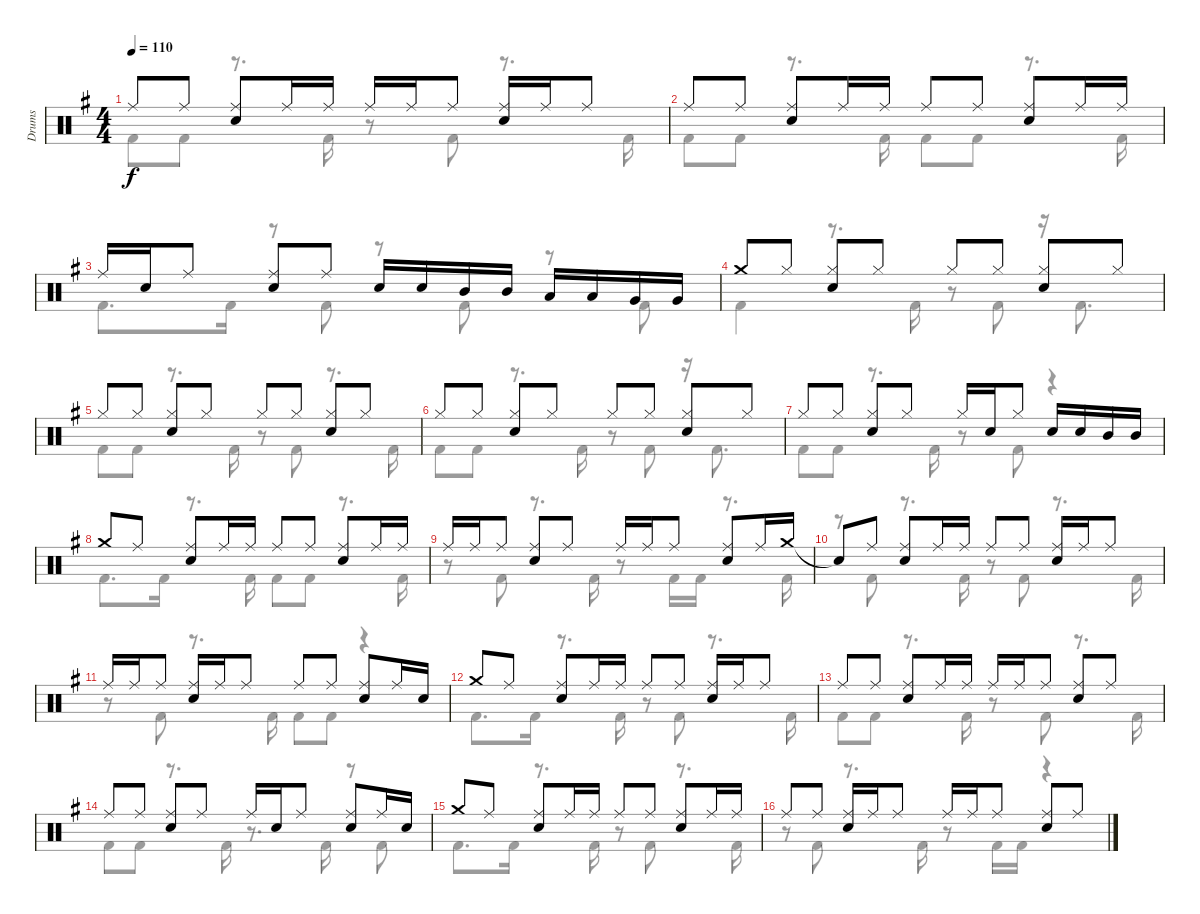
\track ("Drums" "Drums") {instrument percussion}
\staff {score}
\articulation defaults
\voice
\ts (4 4)
\tempo 110
\clef neutral
\ks g "Ride (middle)".8{dy f} "Ride (middle)".8
("Ride (middle)" "Snare (hit) 2").8 "Ride (middle)".16 "Ride (middle)".16 "Ride (middle)".16 "Ride (middle)".16 "Ride (middle)".8 ("Ride (middle)" "Snare (hit) 2").16 "Ride (middle)".16 "Ride (middle)".8 |
"Ride (middle)".8 "Ride (middle)".8 ("Ride (middle)" "Snare (hit) 2").8 "Ride (middle)".16 "Ride (middle)".16 "Ride (middle)".8 "Ride (middle)".8 ("Ride (middle)" "Snare (hit) 2").8 "Ride (middle)".16 "Ride (middle)".16 |
"Ride (middle)".16 "Snare (hit) 2".16 "Ride (middle)".8 ("Ride (middle)" "Snare (hit) 2").8 "Ride (middle)".8 "Snare (hit) 2".16 "Snare (hit) 2".16 "Mid Tom (hit)".16 "Mid Tom (hit)".16 "Low Tom (hit)".16 "Low Tom (hit)".16 "Very Low Tom (hit)".16 "Very Low Tom (hit)".16 |
"Crash medium (hit)".8 "Hi-Hat (closed)".8 ("Hi-Hat (closed)" "Snare (hit) 2").8 "Hi-Hat (closed)".8 "Hi-Hat (closed)".8 "Hi-Hat (closed)".8 ("Hi-Hat (closed)" "Snare (hit) 2").8 "Hi-Hat (closed)".8 |
"Hi-Hat (closed)".8 "Hi-Hat (closed)".8 ("Hi-Hat (closed)" "Snare (hit) 2").8 "Hi-Hat (closed)".8 "Hi-Hat (closed)".8 "Hi-Hat (closed)".8 ("Hi-Hat (closed)" "Snare (hit) 2").8 "Hi-Hat (closed)".8 |
"Hi-Hat (closed)".8 "Hi-Hat (closed)".8 ("Hi-Hat (closed)" "Snare (hit) 2").8 "Hi-Hat (closed)".8 "Hi-Hat (closed)".8 "Hi-Hat (closed)".8 ("Hi-Hat (closed)" "Snare (hit) 2").8 "Hi-Hat (closed)".8 |
"Hi-Hat (closed)".8 "Hi-Hat (closed)".8 ("Hi-Hat (closed)" "Snare (hit) 2").8 "Hi-Hat (closed)".8 "Hi-Hat (closed)".16 "Snare (hit) 2".16 "Hi-Hat (closed)".8 "Snare (hit) 2".16 "Snare (hit) 2".16 "Mid Tom (hit)".16 "Mid Tom (hit)".16 |
"Crash medium (hit)".8 "Ride (middle)".8 ("Ride (middle)" "Snare (hit) 2").8 "Ride (middle)".16 "Ride (middle)".16 "Ride (middle)".8 "Ride (middle)".8 ("Ride (middle)" "Snare (hit) 2").8 "Ride (middle)".16 "Ride (middle)".16 |
"Ride (middle)".16 "Ride (middle)".16 "Ride (middle)".8 ("Ride (middle)" "Snare (hit) 2").8 "Ride (middle)".8 "Ride (middle)".16 "Ride (middle)".16 "Ride (middle)".8 ("Ride (middle)" "Snare (hit) 2").8 "Ride (middle)".16 "Crash medium (hit)".16 |
"Snare (hit)"{t}.8 "Ride (middle)".8 ("Ride (middle)" "Snare (hit) 2").8 "Ride (middle)".16 "Ride (middle)".16 "Ride (middle)".8 "Ride (middle)".8 ("Ride (middle)" "Snare (hit) 2").16 "Ride (middle)".16 "Ride (middle)".8 |
"Ride (middle)".16 "Ride (middle)".16 "Ride (middle)".8 ("Ride (middle)" "Snare (hit) 2").16 "Ride (middle)".16 "Ride (middle)".8 "Ride (middle)".8 "Ride (middle)".8 ("Ride (middle)" "Snare (hit) 2").8 "Ride (middle)".16 "Snare (hit) 2".16 |
"Crash medium (hit)".8 "Ride (middle)".8 ("Ride (middle)" "Snare (hit) 2").8 "Ride (middle)".16 "Ride (middle)".16 "Ride (middle)".8 "Ride (middle)".8 ("Ride (middle)" "Snare (hit) 2").16 "Ride (middle)".16 "Ride (middle)".8 |
"Ride (middle)".8 "Ride (middle)".8 ("Ride (middle)" "Snare (hit) 2").8 "Ride (middle)".16 "Ride (middle)".16 "Ride (middle)".16 "Ride (middle)".16 "Ride (middle)".8 ("Ride (middle)" "Snare (hit) 2").8 "Ride (middle)".8 |
"Ride (middle)".8 "Ride (middle)".8 ("Ride (middle)" "Snare (hit) 2").8 "Ride (middle)".8 "Ride (middle)".16 "Snare (hit) 2".16 "Ride (middle)".8 ("Ride (middle)" "Snare (hit) 2").8 "Ride (middle)".16 "Snare (hit) 2".16 |
"Crash medium (hit)".8 "Ride (middle)".8 ("Ride (middle)" "Snare (hit) 2").8 "Ride (middle)".16 "Ride (middle)".16 "Ride (middle)".8 "Ride (middle)".8 ("Ride (middle)" "Snare (hit) 2").8 "Ride (middle)".16 "Ride (middle)".16 |
"Ride (middle)".8 "Ride (middle)".8 ("Ride (middle)" "Snare (hit) 2").16 "Ride (middle)".16 "Ride (middle)".8 "Ride (middle)".16 "Ride (middle)".16 "Ride (middle)".8 ("Ride (middle)" "Snare (hit) 2").8 "Ride (middle)".8
\voice
\clef neutral
\ottava regular
\simile none
\ks g "Kick (hit) 2".8{dy f} "Kick (hit) 2".8
r.8{d} "Kick (hit) 2".16 r.8 "Kick (hit) 2".8 r.8{d} "Kick (hit) 2".16 |
"Kick (hit) 2".8 "Kick (hit) 2".8 r.8{d} "Kick (hit) 2".16 "Kick (hit) 2".8 "Kick (hit) 2".8 r.8{d} "Kick (hit) 2".16 |
"Kick (hit) 2".8{d} "Kick (hit) 2".16 r.8 "Kick (hit) 2".8 r.8 "Kick (hit) 2".8 r.8 "Kick (hit) 2".8 |
"Kick (hit) 2".4 r.8{d} "Kick (hit) 2".16 r.8 "Kick (hit) 2".8 r.16 "Kick (hit) 2".8{d} |
"Kick (hit) 2".8 "Kick (hit) 2".8 r.8{d} "Kick (hit) 2".16 r.8 "Kick (hit) 2".8 r.8{d} "Kick (hit) 2".16 |
"Kick (hit) 2".8 "Kick (hit) 2".8 r.8{d} "Kick (hit) 2".16 r.8 "Kick (hit) 2".8 r.16 "Kick (hit) 2".8{d} |
"Kick (hit) 2".8 "Kick (hit) 2".8 r.8{d} "Kick (hit) 2".16 r.8 "Kick (hit) 2".8 r.4 |
"Kick (hit) 2".8{d} "Kick (hit) 2".16 r.8{d} "Kick (hit) 2".16 "Kick (hit) 2".8 "Kick (hit) 2".8 r.8{d} "Kick (hit) 2".16 |
r.8 "Kick (hit) 2".8 r.8{d} "Kick (hit) 2".16 r.8 "Kick (hit) 2".16 "Kick (hit) 2".16 r.8{d} "Kick (hit) 2".16 |
r.8 "Kick (hit) 2".8 r.8{d} "Kick (hit) 2".16 r.8 "Kick (hit) 2".8 r.8{d} "Kick (hit) 2".16 |
r.8 "Kick (hit) 2".8 r.8{d} "Kick (hit) 2".16 "Kick (hit) 2".8 "Kick (hit) 2".8 r.4 |
"Kick (hit) 2".8{d} "Kick (hit) 2".16 r.8{d} "Kick (hit) 2".16 r.8 "Kick (hit) 2".8 r.8{d} "Kick (hit) 2".16 |
"Kick (hit) 2".8 "Kick (hit) 2".8 r.8{d} "Kick (hit) 2".16 r.8 "Kick (hit) 2".8 r.8{d} "Kick (hit) 2".16 |
"Kick (hit) 2".8 "Kick (hit) 2".8 r.8{d} "Kick (hit) 2".16 r.8{d} "Kick (hit) 2".16 r.8 "Kick (hit) 2".8 |
"Kick (hit) 2".8{d} "Kick (hit) 2".16 r.8{d} "Kick (hit) 2".16 r.8 "Kick (hit) 2".8 r.8{d} "Kick (hit) 2".16 |
r.8 "Kick (hit) 2".8 r.8{d} "Kick (hit) 2".16 r.8 "Kick (hit) 2".16 "Kick (hit) 2".16 r.4
